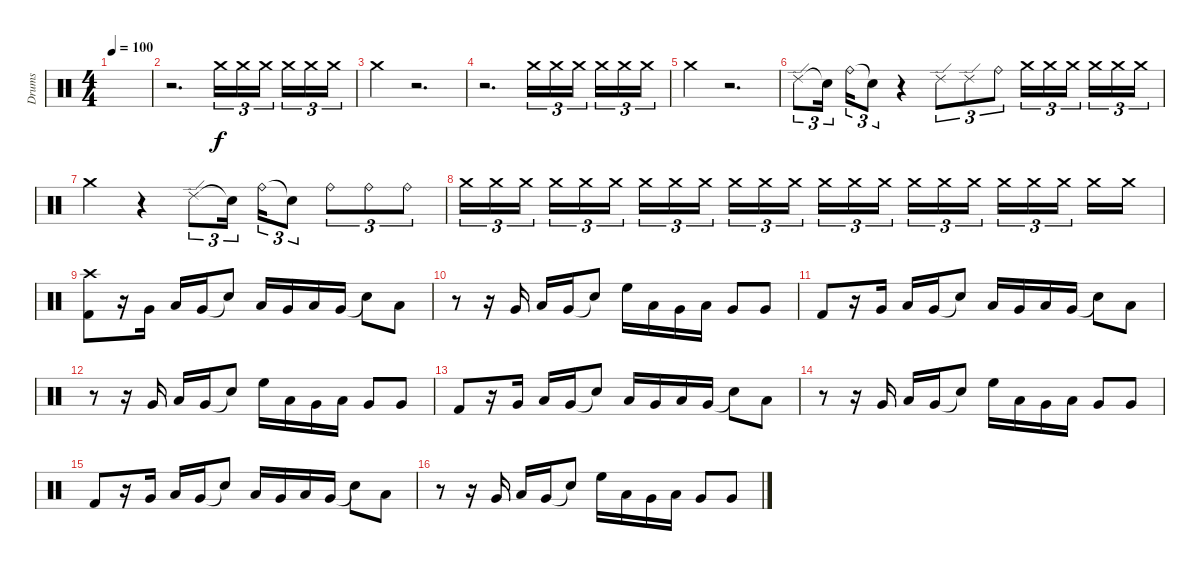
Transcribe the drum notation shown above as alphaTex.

\track ("Drums" "Drums") {instrument percussion}
\staff {score}
\articulation defaults
\ts (4 4)
\tempo 100
\clef neutral
\ks c
|
r.2{d} "Crash medium (hit)".16{tu (3 2) volume 3} "Crash medium (hit)".16{tu (3 2) volume 4} "Crash medium (hit)".16{tu (3 2)} "Crash medium (hit)".16{tu (3 2) volume 6} "Crash medium (hit)".16{tu (3 2)} "Crash medium (hit)".16{tu (3 2) volume 8} |
"Crash medium (hit)".4{volume 10} r.2{d} |
r.2{d} "Crash medium (hit)".16{tu (3 2) volume 3} "Crash medium (hit)".16{tu (3 2) volume 4} "Crash medium (hit)".16{tu (3 2)} "Crash medium (hit)".16{tu (3 2) volume 6} "Crash medium (hit)".16{tu (3 2)} "Crash medium (hit)".16{tu (3 2) volume 8} |
"Crash medium (hit)".4{volume 10} r.2{d} |
"Ride (edge) 2".8{tu (3 2)} "Snare (hit)"{t}.16{tu (3 2)} "Ride (bell)".16{tu (3 2)} "Snare (hit)"{t}.8{tu (3 2)} r.4 "Ride (edge) 2".8{tu (3 2)} "Ride (edge) 2".8{tu (3 2)} "Ride (bell)".8{tu (3 2)} "Crash medium (hit)".16{tu (3 2)} "Crash medium (hit)".16{tu (3 2)} "Crash medium (hit)".16{tu (3 2)} "Crash medium (hit)".16{tu (3 2)} "Crash medium (hit)".16{tu (3 2)} "Crash medium (hit)".16{tu (3 2)} |
"Crash medium (hit)".4{volume 10} r.4 "Ride (edge) 2".8{tu (3 2)} "Snare (hit)"{t}.16{tu (3 2)} "Ride (bell)".16{tu (3 2)} "Snare (hit)"{t}.8{tu (3 2)} "Ride (bell)".8{tu (3 2)} "Ride (bell)".8{tu (3 2)} "Ride (bell)".8{tu (3 2)} |
"Crash medium (hit)".16{tu (3 2)} "Crash medium (hit)".16{tu (3 2)} "Crash medium (hit)".16{tu (3 2)} "Crash medium (hit)".16{tu (3 2)} "Crash medium (hit)".16{tu (3 2)} "Crash medium (hit)".16{tu (3 2)} "Crash medium (hit)".16{tu (3 2)} "Crash medium (hit)".16{tu (3 2)} "Crash medium (hit)".16{tu (3 2)} "Crash medium (hit)".16{tu (3 2)} "Crash medium (hit)".16{tu (3 2)} "Crash medium (hit)".16{tu (3 2)} "Crash medium (hit)".16{tu (3 2)} "Crash medium (hit)".16{tu (3 2)} "Crash medium (hit)".16{tu (3 2)} "Crash medium (hit)".16{tu (3 2)} "Crash medium (hit)".16{tu (3 2)} "Crash medium (hit)".16{tu (3 2)} "Crash medium (hit)".16{tu (3 2)} "Crash medium (hit)".16{tu (3 2)} "Crash medium (hit)".16{tu (3 2)} "Crash medium (hit)".16 "Crash medium (hit)".16 |
("Crash high (hit)" "Kick (hit) 2").8{volume 16} r.16 "Very Low Tom (hit)".16 "Low Tom (hit)".16 "Very Low Tom (hit)".16 "Snare (hit)"{t}.8 "Low Tom (hit)".16 "Very Low Tom (hit)".16 "Low Tom (hit)".16 "Very Low Tom (hit)".16 "Snare (hit)"{t}.8 "Low Tom (hit)".8 |
r.8 r.16 "Very Low Tom (hit)".16 "Low Tom (hit)".16 "Very Low Tom (hit)".16 "Snare (hit)"{t}.8 "High Floor Tom (hit)".16 "Low Tom (hit)".16 "Very Low Tom (hit)".16 "Low Tom (hit)".16 "Very Low Tom (hit)".8 "Very Low Tom (hit)".8 |
"Kick (hit) 2".8 r.16 "Very Low Tom (hit)".16 "Low Tom (hit)".16 "Very Low Tom (hit)".16 "Snare (hit)"{t}.8 "Low Tom (hit)".16 "Very Low Tom (hit)".16 "Low Tom (hit)".16 "Very Low Tom (hit)".16 "Snare (hit)"{t}.8 "Low Tom (hit)".8 |
r.8 r.16 "Very Low Tom (hit)".16 "Low Tom (hit)".16 "Very Low Tom (hit)".16 "Snare (hit)"{t}.8 "High Floor Tom (hit)".16 "Low Tom (hit)".16 "Very Low Tom (hit)".16 "Low Tom (hit)".16 "Very Low Tom (hit)".8 "Very Low Tom (hit)".8 |
"Kick (hit) 2".8 r.16 "Very Low Tom (hit)".16 "Low Tom (hit)".16 "Very Low Tom (hit)".16 "Snare (hit)"{t}.8 "Low Tom (hit)".16 "Very Low Tom (hit)".16 "Low Tom (hit)".16 "Very Low Tom (hit)".16 "Snare (hit)"{t}.8 "Low Tom (hit)".8 |
r.8 r.16 "Very Low Tom (hit)".16 "Low Tom (hit)".16 "Very Low Tom (hit)".16 "Snare (hit)"{t}.8 "High Floor Tom (hit)".16 "Low Tom (hit)".16 "Very Low Tom (hit)".16 "Low Tom (hit)".16 "Very Low Tom (hit)".8 "Very Low Tom (hit)".8 |
"Kick (hit) 2".8 r.16 "Very Low Tom (hit)".16 "Low Tom (hit)".16 "Very Low Tom (hit)".16 "Snare (hit)"{t}.8 "Low Tom (hit)".16 "Very Low Tom (hit)".16 "Low Tom (hit)".16 "Very Low Tom (hit)".16 "Snare (hit)"{t}.8 "Low Tom (hit)".8 |
r.8 r.16 "Very Low Tom (hit)".16 "Low Tom (hit)".16 "Very Low Tom (hit)".16 "Snare (hit)"{t}.8 "High Floor Tom (hit)".16 "Low Tom (hit)".16 "Very Low Tom (hit)".16 "Low Tom (hit)".16 "Very Low Tom (hit)".8 "Very Low Tom (hit)".8
